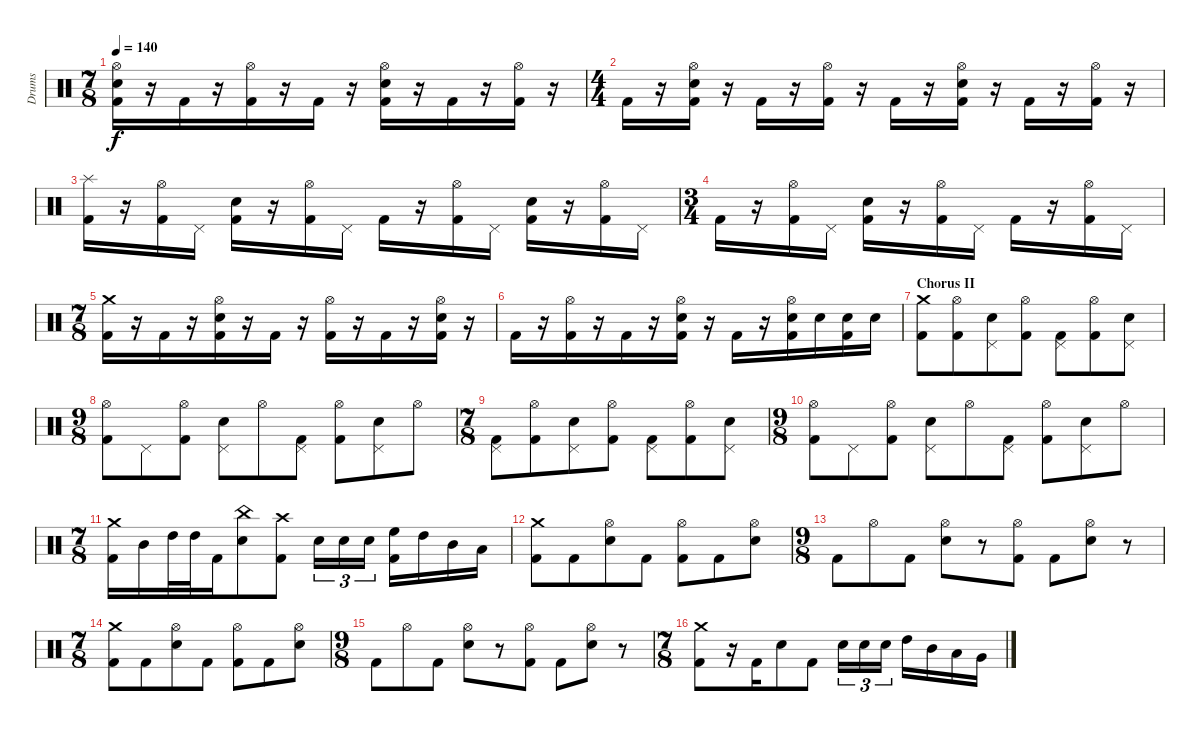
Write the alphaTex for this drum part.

\track ("Drums" "Drums") {instrument percussion}
\staff {score}
\articulation defaults
\ts (7 8)
\tempo 140
\clef neutral
\ks c
("Hi-Hat (open)" "Electric Snare (hit)" "Kick (hit) 2").16{dy f} r.16 "Kick (hit) 2".16 r.16 ("Hi-Hat (open)" "Kick (hit) 2").16 r.16 "Kick (hit) 2".16 r.16 ("Hi-Hat (open)" "Electric Snare (hit)" "Kick (hit) 2").16 r.16 "Kick (hit) 2".16 r.16 ("Hi-Hat (open)" "Kick (hit) 2").16 r.16 |
\ts (4 4)
"Kick (hit) 2".16 r.16 ("Hi-Hat (open)" "Electric Snare (hit)" "Kick (hit) 2").16 r.16 "Kick (hit) 2".16 r.16 ("Hi-Hat (open)" "Kick (hit) 2").16 r.16 "Kick (hit) 2".16 r.16 ("Hi-Hat (open)" "Electric Snare (hit)" "Kick (hit) 2").16 r.16 "Kick (hit) 2".16 r.16 ("Hi-Hat (open)" "Kick (hit) 2").16 r.16 |
("Splash (hit)" "Kick (hit) 2").16 r.16 ("Hi-Hat (open)" "Kick (hit) 2").16 "Pedal Hi-Hat (hit)".16 ("Electric Snare (hit)" "Kick (hit) 2").16 r.16 ("Hi-Hat (open)" "Kick (hit) 2").16 "Pedal Hi-Hat (hit)".16 "Kick (hit) 2".16 r.16 ("Hi-Hat (open)" "Kick (hit) 2").16 "Pedal Hi-Hat (hit)".16 ("Electric Snare (hit)" "Kick (hit) 2").16 r.16 ("Hi-Hat (open)" "Kick (hit) 2").16 "Pedal Hi-Hat (hit)".16 |
\ts (3 4)
"Kick (hit) 2".16 r.16 ("Hi-Hat (open)" "Kick (hit) 2").16 "Pedal Hi-Hat (hit)".16 ("Electric Snare (hit)" "Kick (hit) 2").16 r.16 ("Hi-Hat (open)" "Kick (hit) 2").16 "Pedal Hi-Hat (hit)".16 "Kick (hit) 2".16 r.16 ("Hi-Hat (open)" "Kick (hit) 2").16 "Pedal Hi-Hat (hit)".16 |
\ts (7 8)
("Crash medium (hit)" "Kick (hit) 2").16 r.16 "Kick (hit) 2".16 r.16 ("Hi-Hat (open)" "Electric Snare (hit)" "Kick (hit) 2").16 r.16 "Kick (hit) 2".16 r.16 ("Hi-Hat (open)" "Kick (hit) 2").16 r.16 "Kick (hit) 2".16 r.16 ("Hi-Hat (open)" "Electric Snare (hit)" "Kick (hit) 2").16 r.16 |
"Kick (hit) 2".16 r.16 ("Hi-Hat (open)" "Kick (hit) 2").16 r.16 "Kick (hit) 2".16 r.16 ("Hi-Hat (open)" "Electric Snare (hit)" "Kick (hit) 2").16 r.16 "Kick (hit) 2".16 r.16 ("Hi-Hat (open)" "Electric Snare (hit)" "Kick (hit) 2").16 "Electric Snare (hit)".16 ("Electric Snare (hit)" "Kick (hit) 2").16 "Electric Snare (hit)".16 |
\section ("" "Chorus II")
("Crash medium (hit)" "Kick (hit) 2").8 ("Hi-Hat (open)" "Kick (hit) 2").8 ("Pedal Hi-Hat (hit)" "Electric Snare (hit)").8 ("Hi-Hat (open)" "Kick (hit) 2").8 ("Pedal Hi-Hat (hit)" "Kick (hit) 2").8 ("Hi-Hat (open)" "Kick (hit) 2").8 ("Pedal Hi-Hat (hit)" "Electric Snare (hit)").8 |
\ts (9 8)
("Hi-Hat (open)" "Kick (hit) 2").8 "Pedal Hi-Hat (hit)".8 ("Hi-Hat (open)" "Kick (hit) 2").8 ("Pedal Hi-Hat (hit)" "Electric Snare (hit)").8 "Hi-Hat (open)".8 ("Pedal Hi-Hat (hit)" "Kick (hit) 2").8 ("Hi-Hat (open)" "Kick (hit) 2").8 ("Pedal Hi-Hat (hit)" "Electric Snare (hit)").8 "Hi-Hat (open)".8 |
\ts (7 8)
("Pedal Hi-Hat (hit)" "Kick (hit) 2").8 ("Hi-Hat (open)" "Kick (hit) 2").8 ("Pedal Hi-Hat (hit)" "Electric Snare (hit)").8 ("Hi-Hat (open)" "Kick (hit) 2").8 ("Pedal Hi-Hat (hit)" "Kick (hit) 2").8 ("Hi-Hat (open)" "Kick (hit) 2").8 ("Pedal Hi-Hat (hit)" "Electric Snare (hit)").8 |
\ts (9 8)
("Hi-Hat (open)" "Kick (hit) 2").8 "Pedal Hi-Hat (hit)".8 ("Hi-Hat (open)" "Kick (hit) 2").8 ("Pedal Hi-Hat (hit)" "Electric Snare (hit)").8 "Hi-Hat (open)".8 ("Pedal Hi-Hat (hit)" "Kick (hit) 2").8 ("Hi-Hat (open)" "Kick (hit) 2").8 ("Pedal Hi-Hat (hit)" "Electric Snare (hit)").8 "Hi-Hat (open)".8 |
\ts (7 8)
("Crash medium (hit)" "Kick (hit) 2").16 "Mid Tom (hit)".16 "High Tom (hit)".32 "High Tom (hit)".32 "Kick (hit) 2".16 ("China (hit)" "Electric Snare (hit)").8 ("Crash high (hit)" "Kick (hit) 2").8 "Electric Snare (hit)".16{tu (3 2)} "Electric Snare (hit)".16{tu (3 2)} "Electric Snare (hit)".16{tu (3 2)} ("High Floor Tom (hit)" "Kick (hit) 2").16 "High Tom (hit)".16 "Mid Tom (hit)".16 "Low Tom (hit)".16 |
("Crash medium (hit)" "Kick (hit) 2").8 "Kick (hit) 2".8 ("Hi-Hat (open)" "Electric Snare (hit)").8 "Kick (hit) 2".8 ("Hi-Hat (open)" "Kick (hit) 2").8 "Kick (hit) 2".8 ("Hi-Hat (open)" "Electric Snare (hit)").8 |
\ts (9 8)
"Kick (hit) 2".8 "Hi-Hat (open)".8 "Kick (hit) 2".8 ("Hi-Hat (open)" "Electric Snare (hit)").8 r.8 ("Hi-Hat (open)" "Kick (hit) 2").8 "Kick (hit) 2".8 ("Hi-Hat (open)" "Electric Snare (hit)").8 r.8 |
\ts (7 8)
("Crash medium (hit)" "Kick (hit) 2").8 "Kick (hit) 2".8 ("Hi-Hat (open)" "Electric Snare (hit)").8 "Kick (hit) 2".8 ("Hi-Hat (open)" "Kick (hit) 2").8 "Kick (hit) 2".8 ("Hi-Hat (open)" "Electric Snare (hit)").8 |
\ts (9 8)
"Kick (hit) 2".8 "Hi-Hat (open)".8 "Kick (hit) 2".8 ("Hi-Hat (open)" "Electric Snare (hit)").8 r.8 ("Hi-Hat (open)" "Kick (hit) 2").8 "Kick (hit) 2".8 ("Hi-Hat (open)" "Electric Snare (hit)").8 r.8 |
\ts (7 8)
("Crash medium (hit)" "Kick (hit) 2").8 r.16 "Kick (hit) 2".16 "Electric Snare (hit)".8 "Kick (hit) 2".8 "Electric Snare (hit)".16{tu (3 2)} "Electric Snare (hit)".16{tu (3 2)} "Electric Snare (hit)".16{tu (3 2)} "High Tom (hit)".16 "Mid Tom (hit)".16 "Low Tom (hit)".16 "Very Low Tom (hit)".16
